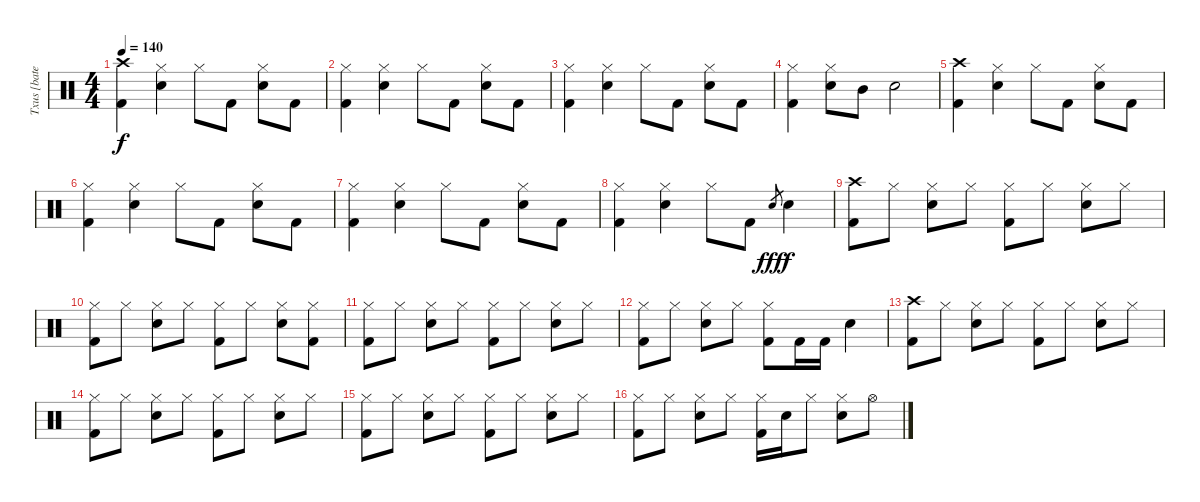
\track ("Txus [bateria]" "Txus [bate") {instrument percussion}
\staff {score}
\articulation defaults
\ts (4 4)
\tempo 140
\clef neutral
\ks c
("Crash high (hit)" "Kick (hit) 2").4{dy f} ("Hi-Hat (closed)" "Snare (hit) 2").4 "Hi-Hat (closed)".8 "Kick (hit) 2".8 ("Hi-Hat (closed)" "Snare (hit) 2").8 "Kick (hit) 2".8 |
("Hi-Hat (closed)" "Kick (hit) 2").4 ("Hi-Hat (closed)" "Snare (hit) 2").4 "Hi-Hat (closed)".8 "Kick (hit) 2".8 ("Hi-Hat (closed)" "Snare (hit) 2").8 "Kick (hit) 2".8 |
("Hi-Hat (closed)" "Kick (hit) 2").4 ("Hi-Hat (closed)" "Snare (hit) 2").4 "Hi-Hat (closed)".8 "Kick (hit) 2".8 ("Hi-Hat (closed)" "Snare (hit) 2").8 "Kick (hit) 2".8 |
("Hi-Hat (closed)" "Kick (hit) 2").4 ("Hi-Hat (closed)" "Snare (hit) 2").8 "Mid Tom (hit)".8 "Snare (hit) 2".2 |
("Crash high (hit)" "Kick (hit) 2").4 ("Hi-Hat (closed)" "Snare (hit) 2").4 "Hi-Hat (closed)".8 "Kick (hit) 2".8 ("Hi-Hat (closed)" "Snare (hit) 2").8 "Kick (hit) 2".8 |
("Hi-Hat (closed)" "Kick (hit) 2").4 ("Hi-Hat (closed)" "Snare (hit) 2").4 "Hi-Hat (closed)".8 "Kick (hit) 2".8 ("Hi-Hat (closed)" "Snare (hit) 2").8 "Kick (hit) 2".8 |
("Hi-Hat (closed)" "Kick (hit) 2").4 ("Hi-Hat (closed)" "Snare (hit) 2").4 "Hi-Hat (closed)".8 "Kick (hit) 2".8 ("Hi-Hat (closed)" "Snare (hit) 2").8 "Kick (hit) 2".8 |
("Hi-Hat (closed)" "Kick (hit) 2").4 ("Hi-Hat (closed)" "Snare (hit) 2").4 "Hi-Hat (closed)".8 "Kick (hit) 2".8 "Snare (hit) 2".8{gr dy fff} "Snare (hit) 2".4{dy f} |
("Crash high (hit)" "Kick (hit) 2").8 "Hi-Hat (closed)".8 ("Hi-Hat (closed)" "Snare (hit) 2").8 "Hi-Hat (closed)".8 ("Hi-Hat (closed)" "Kick (hit) 2").8 "Hi-Hat (closed)".8 ("Hi-Hat (closed)" "Snare (hit) 2").8 "Hi-Hat (closed)".8 |
("Hi-Hat (closed)" "Kick (hit) 2").8 "Hi-Hat (closed)".8 ("Hi-Hat (closed)" "Snare (hit) 2").8 "Hi-Hat (closed)".8 ("Hi-Hat (closed)" "Kick (hit) 2").8 "Hi-Hat (closed)".8 ("Hi-Hat (closed)" "Snare (hit) 2").8 ("Hi-Hat (closed)" "Kick (hit) 2").8 |
("Hi-Hat (closed)" "Kick (hit) 2").8 "Hi-Hat (closed)".8 ("Hi-Hat (closed)" "Snare (hit) 2").8 "Hi-Hat (closed)".8 ("Hi-Hat (closed)" "Kick (hit) 2").8 "Hi-Hat (closed)".8 ("Hi-Hat (closed)" "Snare (hit) 2").8 "Hi-Hat (closed)".8 |
("Hi-Hat (closed)" "Kick (hit) 2").8 "Hi-Hat (closed)".8 ("Hi-Hat (closed)" "Snare (hit) 2").8 "Hi-Hat (closed)".8 ("Hi-Hat (closed)" "Kick (hit) 2").8 "Kick (hit) 2".16 "Kick (hit) 2".16 "Snare (hit) 2".4 |
("Crash high (hit)" "Kick (hit) 2").8 "Hi-Hat (closed)".8 ("Hi-Hat (closed)" "Snare (hit) 2").8 "Hi-Hat (closed)".8 ("Hi-Hat (closed)" "Kick (hit) 2").8 "Hi-Hat (closed)".8 ("Hi-Hat (closed)" "Snare (hit) 2").8 "Hi-Hat (closed)".8 |
("Hi-Hat (closed)" "Kick (hit) 2").8 "Hi-Hat (closed)".8 ("Hi-Hat (closed)" "Snare (hit) 2").8 "Hi-Hat (closed)".8 ("Hi-Hat (closed)" "Kick (hit) 2").8 "Hi-Hat (closed)".8 ("Hi-Hat (closed)" "Snare (hit) 2").8 "Hi-Hat (closed)".8 |
("Hi-Hat (closed)" "Kick (hit) 2").8 "Hi-Hat (closed)".8 ("Hi-Hat (closed)" "Snare (hit) 2").8 "Hi-Hat (closed)".8 ("Hi-Hat (closed)" "Kick (hit) 2").8 "Hi-Hat (closed)".8 ("Hi-Hat (closed)" "Snare (hit) 2").8 "Hi-Hat (closed)".8 |
("Hi-Hat (closed)" "Kick (hit) 2").8 "Hi-Hat (closed)".8 ("Hi-Hat (closed)" "Snare (hit) 2").8 "Hi-Hat (closed)".8 ("Hi-Hat (closed)" "Kick (hit) 2").16 "Snare (hit) 2".16 "Hi-Hat (closed)".8 ("Hi-Hat (closed)" "Snare (hit) 2").8 "Hi-Hat (open)".8
